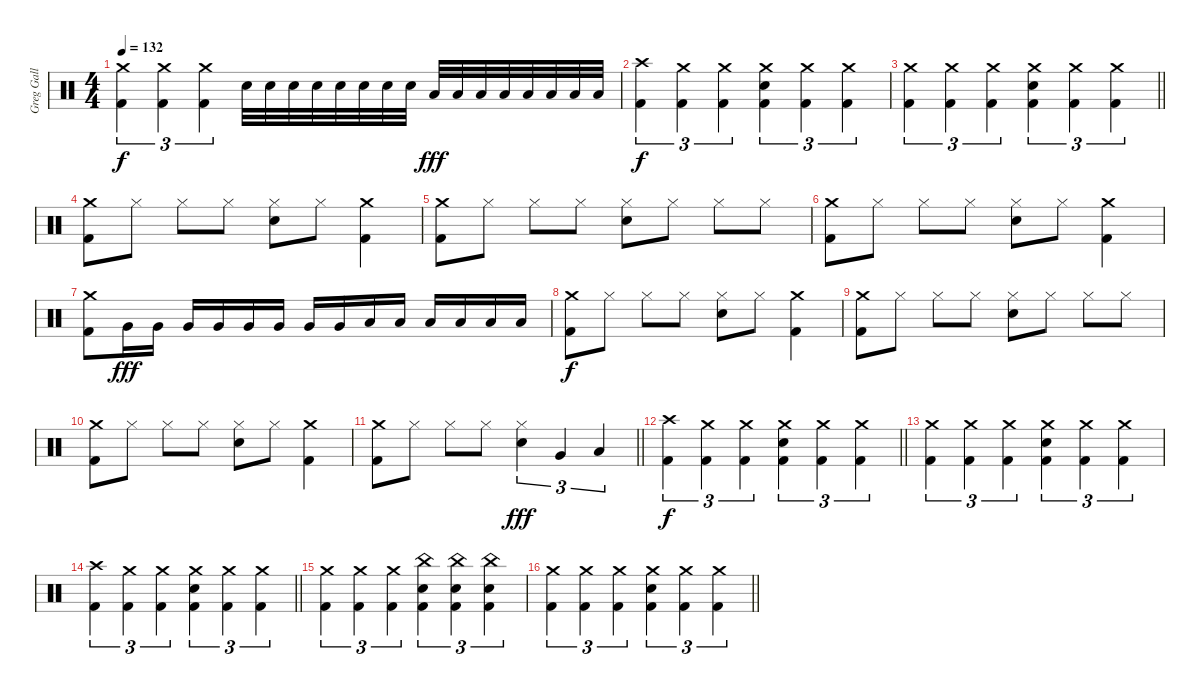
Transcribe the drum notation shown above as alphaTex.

\track ("Greg Gall" "Greg Gall") {instrument percussion}
\staff {score}
\articulation defaults
\ts (4 4)
\tempo 132
\clef neutral
\ks c
("Crash medium (hit)" "Kick (hit) 2").4{tu (3 2) dy f} ("Crash medium (hit)" "Kick (hit) 2").4{tu (3 2)} ("Crash medium (hit)" "Kick (hit) 2").4{tu (3 2)} "Electric Snare (hit)".32 "Electric Snare (hit)".32 "Electric Snare (hit)".32 "Electric Snare (hit)".32 "Electric Snare (hit)".32 "Electric Snare (hit)".32 "Electric Snare (hit)".32 "Electric Snare (hit)".32 "Low Floor Tom (hit)".32{dy fff} "Low Floor Tom (hit)".32 "Low Floor Tom (hit)".32 "Low Floor Tom (hit)".32 "Low Floor Tom (hit)".32 "Low Floor Tom (hit)".32 "Low Floor Tom (hit)".32 "Low Floor Tom (hit)".32 |
("Crash high (hit)" "Kick (hit) 2").4{tu (3 2) dy f} ("Crash medium (hit)" "Kick (hit) 2").4{tu (3 2)} ("Crash medium (hit)" "Kick (hit) 2").4{tu (3 2)} ("Crash medium (hit)" "Electric Snare (hit)" "Kick (hit) 2").4{tu (3 2)} ("Crash medium (hit)" "Kick (hit) 2").4{tu (3 2)} ("Crash medium (hit)" "Kick (hit) 2").4{tu (3 2)} |
\barLineRight lightlight
("Crash medium (hit)" "Kick (hit) 2").4{tu (3 2)} ("Crash medium (hit)" "Kick (hit) 2").4{tu (3 2)} ("Crash medium (hit)" "Kick (hit) 2").4{tu (3 2)} ("Crash medium (hit)" "Electric Snare (hit)" "Kick (hit) 2").4{tu (3 2)} ("Crash medium (hit)" "Kick (hit) 2").4{tu (3 2)} ("Crash medium (hit)" "Kick (hit) 2").4{tu (3 2)} |
("Crash medium (hit)" "Kick (hit) 2").8 "Hi-Hat (closed)".8 "Hi-Hat (closed)".8 "Hi-Hat (closed)".8 ("Hi-Hat (closed)" "Electric Snare (hit)").8 "Hi-Hat (closed)".8 ("Crash medium (hit)" "Kick (hit) 2").4 |
("Crash medium (hit)" "Kick (hit) 2").8 "Hi-Hat (closed)".8 "Hi-Hat (closed)".8 "Hi-Hat (closed)".8 ("Hi-Hat (closed)" "Electric Snare (hit)").8 "Hi-Hat (closed)".8 "Hi-Hat (closed)".8 "Hi-Hat (closed)".8 |
("Crash medium (hit)" "Kick (hit) 2").8 "Hi-Hat (closed)".8 "Hi-Hat (closed)".8 "Hi-Hat (closed)".8 ("Hi-Hat (closed)" "Electric Snare (hit)").8 "Hi-Hat (closed)".8 ("Crash medium (hit)" "Kick (hit) 2").4 |
("Crash medium (hit)" "Kick (hit) 2").8 "Very Low Tom (hit)".16{dy fff} "Very Low Tom (hit)".16 "Very Low Tom (hit)".16 "Very Low Tom (hit)".16 "Very Low Tom (hit)".16 "Very Low Tom (hit)".16 "Very Low Tom (hit)".16 "Very Low Tom (hit)".16 "Low Floor Tom (hit)".16 "Low Floor Tom (hit)".16 "Low Floor Tom (hit)".16 "Low Floor Tom (hit)".16 "Low Floor Tom (hit)".16 "Low Floor Tom (hit)".16 |
("Crash medium (hit)" "Kick (hit) 2").8{dy f} "Hi-Hat (closed)".8 "Hi-Hat (closed)".8 "Hi-Hat (closed)".8 ("Hi-Hat (closed)" "Electric Snare (hit)").8 "Hi-Hat (closed)".8 ("Crash medium (hit)" "Kick (hit) 2").4 |
("Crash medium (hit)" "Kick (hit) 2").8 "Hi-Hat (closed)".8 "Hi-Hat (closed)".8 "Hi-Hat (closed)".8 ("Hi-Hat (closed)" "Electric Snare (hit)").8 "Hi-Hat (closed)".8 "Hi-Hat (closed)".8 "Hi-Hat (closed)".8 |
("Crash medium (hit)" "Kick (hit) 2").8 "Hi-Hat (closed)".8 "Hi-Hat (closed)".8 "Hi-Hat (closed)".8 ("Hi-Hat (closed)" "Electric Snare (hit)").8 "Hi-Hat (closed)".8 ("Crash medium (hit)" "Kick (hit) 2").4 |
\barLineRight lightlight
("Crash medium (hit)" "Kick (hit) 2").8 "Hi-Hat (closed)".8 "Hi-Hat (closed)".8 "Hi-Hat (closed)".8 ("Hi-Hat (closed)" "Electric Snare (hit)").4{tu (3 2) dy fff} "Very Low Tom (hit)".4{tu (3 2)} "Low Floor Tom (hit)".4{tu (3 2)} |
\barLineRight lightlight
("Crash high (hit)" "Kick (hit) 2").4{tu (3 2) dy f} ("Crash medium (hit)" "Kick (hit) 2").4{tu (3 2)} ("Crash medium (hit)" "Kick (hit) 2").4{tu (3 2)} ("Crash medium (hit)" "Electric Snare (hit)" "Kick (hit) 2").4{tu (3 2)} ("Crash medium (hit)" "Kick (hit) 2").4{tu (3 2)} ("Crash medium (hit)" "Kick (hit) 2").4{tu (3 2)} |
("Crash medium (hit)" "Kick (hit) 2").4{tu (3 2)} ("Crash medium (hit)" "Kick (hit) 2").4{tu (3 2)} ("Crash medium (hit)" "Kick (hit) 2").4{tu (3 2)} ("Crash medium (hit)" "Electric Snare (hit)" "Kick (hit) 2").4{tu (3 2)} ("Crash medium (hit)" "Kick (hit) 2").4{tu (3 2)} ("Crash medium (hit)" "Kick (hit) 2").4{tu (3 2)} |
\barLineRight lightlight
("Crash high (hit)" "Kick (hit) 2").4{tu (3 2)} ("Crash medium (hit)" "Kick (hit) 2").4{tu (3 2)} ("Crash medium (hit)" "Kick (hit) 2").4{tu (3 2)} ("Crash medium (hit)" "Electric Snare (hit)" "Kick (hit) 2").4{tu (3 2)} ("Crash medium (hit)" "Kick (hit) 2").4{tu (3 2)} ("Crash medium (hit)" "Kick (hit) 2").4{tu (3 2)} |
("Crash medium (hit)" "Kick (hit) 2").4{tu (3 2)} ("Crash medium (hit)" "Kick (hit) 2").4{tu (3 2)} ("Crash medium (hit)" "Kick (hit) 2").4{tu (3 2)} ("China (hit)" "Electric Snare (hit)" "Kick (hit) 2").4{tu (3 2)} ("China (hit)" "Electric Snare (hit)" "Kick (hit) 2").4{tu (3 2)} ("China (hit)" "Electric Snare (hit)" "Kick (hit) 2").4{tu (3 2)} |
\barLineRight lightlight
("Crash medium (hit)" "Kick (hit) 2").4{tu (3 2)} ("Crash medium (hit)" "Kick (hit) 2").4{tu (3 2)} ("Crash medium (hit)" "Kick (hit) 2").4{tu (3 2)} ("Crash medium (hit)" "Electric Snare (hit)" "Kick (hit) 2").4{tu (3 2)} ("Crash medium (hit)" "Kick (hit) 2").4{tu (3 2)} ("Crash medium (hit)" "Kick (hit) 2").4{tu (3 2)}
